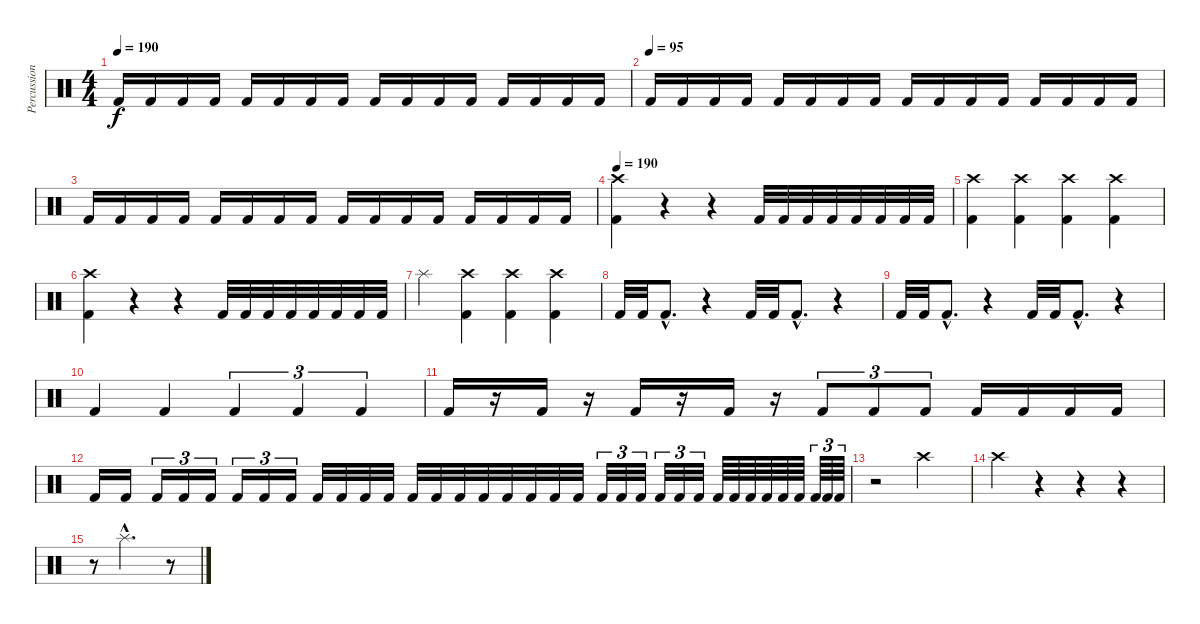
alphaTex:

\track ("Percussion" "Percussion") {instrument percussion}
\staff {score}
\articulation defaults
\ts (4 4)
\tempo 190
\clef neutral
\ks c "Kick (hit) 2".16{dy f} "Kick (hit) 2".16 "Kick (hit) 2".16 "Kick (hit) 2".16 "Kick (hit) 2".16 "Kick (hit) 2".16 "Kick (hit) 2".16 "Kick (hit) 2".16 "Kick (hit) 2".16 "Kick (hit) 2".16 "Kick (hit) 2".16 "Kick (hit) 2".16 "Kick (hit) 2".16 "Kick (hit) 2".16 "Kick (hit) 2".16 "Kick (hit) 2".16
|
\tempo (95)
"Kick (hit) 2".16 "Kick (hit) 2".16 "Kick (hit) 2".16 "Kick (hit) 2".16 "Kick (hit) 2".16 "Kick (hit) 2".16 "Kick (hit) 2".16 "Kick (hit) 2".16 "Kick (hit) 2".16 "Kick (hit) 2".16 "Kick (hit) 2".16 "Kick (hit) 2".16 "Kick (hit) 2".16 "Kick (hit) 2".16 "Kick (hit) 2".16 "Kick (hit) 2".16 |
"Kick (hit) 2".16 "Kick (hit) 2".16 "Kick (hit) 2".16 "Kick (hit) 2".16 "Kick (hit) 2".16 "Kick (hit) 2".16 "Kick (hit) 2".16 "Kick (hit) 2".16 "Kick (hit) 2".16 "Kick (hit) 2".16 "Kick (hit) 2".16 "Kick (hit) 2".16 "Kick (hit) 2".16 "Kick (hit) 2".16 "Kick (hit) 2".16 "Kick (hit) 2".16 |
\tempo 190
("Crash high (hit)" "Kick (hit) 2").4 r.4 r.4 "Kick (hit) 2".32 "Kick (hit) 2".32 "Kick (hit) 2".32 "Kick (hit) 2".32 "Kick (hit) 2".32 "Kick (hit) 2".32 "Kick (hit) 2".32 "Kick (hit) 2".32 |
("Crash high (hit)" "Kick (hit) 2").4 ("Crash high (hit)" "Kick (hit) 2").4 ("Crash high (hit)" "Kick (hit) 2").4 ("Crash high (hit)" "Kick (hit) 2").4 |
("Crash high (hit)" "Kick (hit) 2").4 r.4 r.4 "Kick (hit) 2".32 "Kick (hit) 2".32 "Kick (hit) 2".32 "Kick (hit) 2".32 "Kick (hit) 2".32 "Kick (hit) 2".32 "Kick (hit) 2".32 "Kick (hit) 2".32 |
"Splash (hit)".4 ("Crash high (hit)" "Kick (hit) 2").4 ("Crash high (hit)" "Kick (hit) 2").4 ("Crash high (hit)" "Kick (hit) 2").4 |
"Kick (hit) 2".32 "Kick (hit) 2".32 "Kick (hit) 2"{hac}.8{d} r.4 "Kick (hit) 2".32 "Kick (hit) 2".32 "Kick (hit) 2"{hac}.8{d} r.4 |
"Kick (hit) 2".32 "Kick (hit) 2".32 "Kick (hit) 2"{hac}.8{d} r.4 "Kick (hit) 2".32 "Kick (hit) 2".32 "Kick (hit) 2"{hac}.8{d} r.4 |
"Kick (hit) 2".4 "Kick (hit) 2".4 "Kick (hit) 2".4{tu (3 2)} "Kick (hit) 2".4{tu (3 2)} "Kick (hit) 2".4{tu (3 2)} |
"Kick (hit) 2".16 r.16 "Kick (hit) 2".16 r.16 "Kick (hit) 2".16 r.16 "Kick (hit) 2".16 r.16 "Kick (hit) 2".8{tu (3 2)} "Kick (hit) 2".8{tu (3 2)} "Kick (hit) 2".8{tu (3 2)} "Kick (hit) 2".16 "Kick (hit) 2".16 "Kick (hit) 2".16 "Kick (hit) 2".16 |
"Kick (hit) 2".16 "Kick (hit) 2".16 "Kick (hit) 2".16{tu (3 2)} "Kick (hit) 2".16{tu (3 2)} "Kick (hit) 2".16{tu (3 2)} "Kick (hit) 2".16{tu (3 2)} "Kick (hit) 2".16{tu (3 2)} "Kick (hit) 2".16{tu (3 2)} "Kick (hit) 2".32 "Kick (hit) 2".32 "Kick (hit) 2".32 "Kick (hit) 2".32 "Kick (hit) 2".32 "Kick (hit) 2".32 "Kick (hit) 2".32 "Kick (hit) 2".32 "Kick (hit) 2".32 "Kick (hit) 2".32 "Kick (hit) 2".32 "Kick (hit) 2".32 "Kick (hit) 2".32{tu (3 2)} "Kick (hit) 2".32{tu (3 2)} "Kick (hit) 2".32{tu (3 2)} "Kick (hit) 2".32{tu (3 2)} "Kick (hit) 2".32{tu (3 2)} "Kick (hit) 2".32{tu (3 2)} "Kick (hit) 2".64 "Kick (hit) 2".64 "Kick (hit) 2".64 "Kick (hit) 2".64 "Kick (hit) 2".64 "Kick (hit) 2".64 "Kick (hit) 2".64{tu (3 2)} "Kick (hit) 2".64{tu (3 2)} "Kick (hit) 2".64{tu (3 2)} |
r.2 "Crash high (hit)".2 |
"Crash high (hit)".4 r.4 r.4 r.4 |
r.8 "Splash (hit)"{hac}.2{d} r.8
